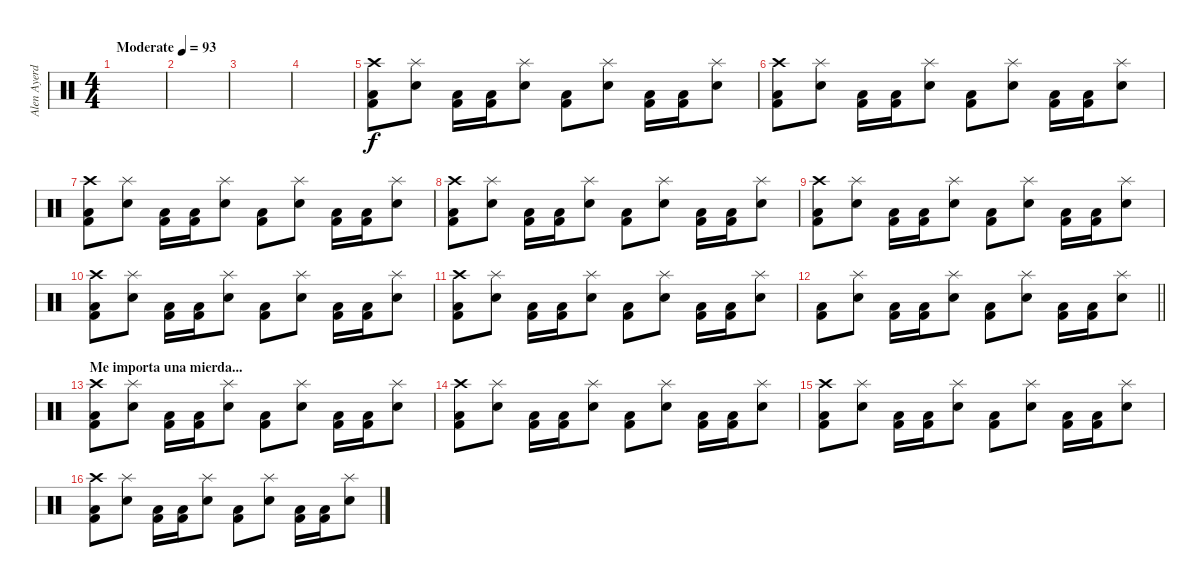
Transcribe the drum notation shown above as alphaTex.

\track ("Alen Ayerdi" "Alen Ayerd") {instrument percussion}
\staff {score}
\articulation defaults
\ts (4 4)
\tempo (93 "Moderate")
\clef neutral
\ks c
|
|
|
|
("Crash high (hit)" "Low Floor Tom (hit)" "Kick (hit) 2").8 ("Splash (hit)" "Electric Snare (hit)").8 ("Low Floor Tom (hit)" "Kick (hit) 2").16 ("Low Floor Tom (hit)" "Kick (hit) 2").16 ("Splash (hit)" "Electric Snare (hit)").8 ("Low Floor Tom (hit)" "Kick (hit) 2").8 ("Splash (hit)" "Electric Snare (hit)").8 ("Low Floor Tom (hit)" "Kick (hit) 2").16 ("Low Floor Tom (hit)" "Kick (hit) 2").16 ("Splash (hit)" "Electric Snare (hit)").8 |
("Crash high (hit)" "Low Floor Tom (hit)" "Kick (hit) 2").8 ("Splash (hit)" "Electric Snare (hit)").8 ("Low Floor Tom (hit)" "Kick (hit) 2").16 ("Low Floor Tom (hit)" "Kick (hit) 2").16 ("Splash (hit)" "Electric Snare (hit)").8 ("Low Floor Tom (hit)" "Kick (hit) 2").8 ("Splash (hit)" "Electric Snare (hit)").8 ("Low Floor Tom (hit)" "Kick (hit) 2").16 ("Low Floor Tom (hit)" "Kick (hit) 2").16 ("Splash (hit)" "Electric Snare (hit)").8 |
("Crash high (hit)" "Low Floor Tom (hit)" "Kick (hit) 2").8 ("Splash (hit)" "Electric Snare (hit)").8 ("Low Floor Tom (hit)" "Kick (hit) 2").16 ("Low Floor Tom (hit)" "Kick (hit) 2").16 ("Splash (hit)" "Electric Snare (hit)").8 ("Low Floor Tom (hit)" "Kick (hit) 2").8 ("Splash (hit)" "Electric Snare (hit)").8 ("Low Floor Tom (hit)" "Kick (hit) 2").16 ("Low Floor Tom (hit)" "Kick (hit) 2").16 ("Splash (hit)" "Electric Snare (hit)").8 |
("Crash high (hit)" "Low Floor Tom (hit)" "Kick (hit) 2").8 ("Splash (hit)" "Electric Snare (hit)").8 ("Low Floor Tom (hit)" "Kick (hit) 2").16 ("Low Floor Tom (hit)" "Kick (hit) 2").16 ("Splash (hit)" "Electric Snare (hit)").8 ("Low Floor Tom (hit)" "Kick (hit) 2").8 ("Splash (hit)" "Electric Snare (hit)").8 ("Low Floor Tom (hit)" "Kick (hit) 2").16 ("Low Floor Tom (hit)" "Kick (hit) 2").16 ("Splash (hit)" "Electric Snare (hit)").8 |
("Crash high (hit)" "Low Floor Tom (hit)" "Kick (hit) 2").8 ("Splash (hit)" "Electric Snare (hit)").8 ("Low Floor Tom (hit)" "Kick (hit) 2").16 ("Low Floor Tom (hit)" "Kick (hit) 2").16 ("Splash (hit)" "Electric Snare (hit)").8 ("Low Floor Tom (hit)" "Kick (hit) 2").8 ("Splash (hit)" "Electric Snare (hit)").8 ("Low Floor Tom (hit)" "Kick (hit) 2").16 ("Low Floor Tom (hit)" "Kick (hit) 2").16 ("Splash (hit)" "Electric Snare (hit)").8 |
("Crash high (hit)" "Low Floor Tom (hit)" "Kick (hit) 2").8 ("Splash (hit)" "Electric Snare (hit)").8 ("Low Floor Tom (hit)" "Kick (hit) 2").16 ("Low Floor Tom (hit)" "Kick (hit) 2").16 ("Splash (hit)" "Electric Snare (hit)").8 ("Low Floor Tom (hit)" "Kick (hit) 2").8 ("Splash (hit)" "Electric Snare (hit)").8 ("Low Floor Tom (hit)" "Kick (hit) 2").16 ("Low Floor Tom (hit)" "Kick (hit) 2").16 ("Splash (hit)" "Electric Snare (hit)").8 |
("Crash high (hit)" "Low Floor Tom (hit)" "Kick (hit) 2").8 ("Splash (hit)" "Electric Snare (hit)").8 ("Low Floor Tom (hit)" "Kick (hit) 2").16 ("Low Floor Tom (hit)" "Kick (hit) 2").16 ("Splash (hit)" "Electric Snare (hit)").8 ("Low Floor Tom (hit)" "Kick (hit) 2").8 ("Splash (hit)" "Electric Snare (hit)").8 ("Low Floor Tom (hit)" "Kick (hit) 2").16 ("Low Floor Tom (hit)" "Kick (hit) 2").16 ("Splash (hit)" "Electric Snare (hit)").8 |
\barLineRight lightlight
("Low Floor Tom (hit)" "Kick (hit) 2").8 ("Splash (hit)" "Electric Snare (hit)").8 ("Low Floor Tom (hit)" "Kick (hit) 2").16 ("Low Floor Tom (hit)" "Kick (hit) 2").16 ("Splash (hit)" "Electric Snare (hit)").8 ("Low Floor Tom (hit)" "Kick (hit) 2").8 ("Splash (hit)" "Electric Snare (hit)").8 ("Low Floor Tom (hit)" "Kick (hit) 2").16 ("Low Floor Tom (hit)" "Kick (hit) 2").16 ("Splash (hit)" "Electric Snare (hit)").8 |
\section ("" "Me importa una mierda...")
("Crash high (hit)" "Low Floor Tom (hit)" "Kick (hit) 2").8 ("Splash (hit)" "Electric Snare (hit)").8 ("Low Floor Tom (hit)" "Kick (hit) 2").16 ("Low Floor Tom (hit)" "Kick (hit) 2").16 ("Splash (hit)" "Electric Snare (hit)").8 ("Low Floor Tom (hit)" "Kick (hit) 2").8 ("Splash (hit)" "Electric Snare (hit)").8 ("Low Floor Tom (hit)" "Kick (hit) 2").16 ("Low Floor Tom (hit)" "Kick (hit) 2").16 ("Splash (hit)" "Electric Snare (hit)").8 |
("Crash high (hit)" "Low Floor Tom (hit)" "Kick (hit) 2").8 ("Splash (hit)" "Electric Snare (hit)").8 ("Low Floor Tom (hit)" "Kick (hit) 2").16 ("Low Floor Tom (hit)" "Kick (hit) 2").16 ("Splash (hit)" "Electric Snare (hit)").8 ("Low Floor Tom (hit)" "Kick (hit) 2").8 ("Splash (hit)" "Electric Snare (hit)").8 ("Low Floor Tom (hit)" "Kick (hit) 2").16 ("Low Floor Tom (hit)" "Kick (hit) 2").16 ("Splash (hit)" "Electric Snare (hit)").8 |
("Crash high (hit)" "Low Floor Tom (hit)" "Kick (hit) 2").8 ("Splash (hit)" "Electric Snare (hit)").8 ("Low Floor Tom (hit)" "Kick (hit) 2").16 ("Low Floor Tom (hit)" "Kick (hit) 2").16 ("Splash (hit)" "Electric Snare (hit)").8 ("Low Floor Tom (hit)" "Kick (hit) 2").8 ("Splash (hit)" "Electric Snare (hit)").8 ("Low Floor Tom (hit)" "Kick (hit) 2").16 ("Low Floor Tom (hit)" "Kick (hit) 2").16 ("Splash (hit)" "Electric Snare (hit)").8 |
("Crash high (hit)" "Low Floor Tom (hit)" "Kick (hit) 2").8 ("Splash (hit)" "Electric Snare (hit)").8 ("Low Floor Tom (hit)" "Kick (hit) 2").16 ("Low Floor Tom (hit)" "Kick (hit) 2").16 ("Splash (hit)" "Electric Snare (hit)").8 ("Low Floor Tom (hit)" "Kick (hit) 2").8 ("Splash (hit)" "Electric Snare (hit)").8 ("Low Floor Tom (hit)" "Kick (hit) 2").16 ("Low Floor Tom (hit)" "Kick (hit) 2").16 ("Splash (hit)" "Electric Snare (hit)").8
